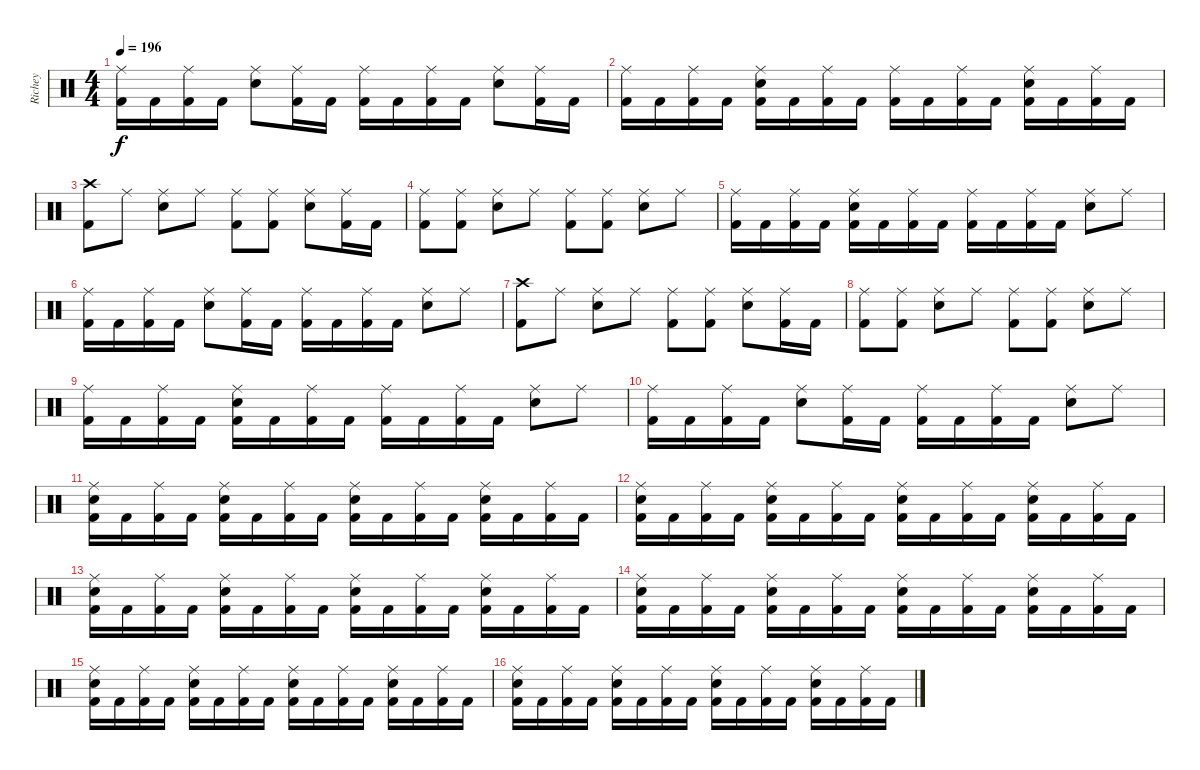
\track ("Richey" "Richey") {instrument percussion}
\staff {score}
\articulation defaults
\ts (4 4)
\tempo 196
\clef neutral
\ks c
("Ride (middle)" "Kick (hit) 2").16{dy f} "Kick (hit) 2".16 ("Ride (middle)" "Kick (hit) 2").16 "Kick (hit) 2".16 ("Ride (middle)" "Snare (hit) 2").8 ("Ride (middle)" "Kick (hit) 2").16 "Kick (hit) 2".16 ("Ride (middle)" "Kick (hit) 2").16 "Kick (hit) 2".16 ("Ride (middle)" "Kick (hit) 2").16 "Kick (hit) 2".16 ("Ride (middle)" "Snare (hit) 2").8 ("Ride (middle)" "Kick (hit) 2").16 "Kick (hit) 2".16 |
("Ride (middle)" "Kick (hit) 2").16 "Kick (hit) 2".16 ("Ride (middle)" "Kick (hit) 2").16 "Kick (hit) 2".16 ("Ride (middle)" "Snare (hit) 2" "Kick (hit) 2").16 "Kick (hit) 2".16 ("Ride (middle)" "Kick (hit) 2").16 "Kick (hit) 2".16 ("Ride (middle)" "Kick (hit) 2").16 "Kick (hit) 2".16 ("Ride (middle)" "Kick (hit) 2").16 "Kick (hit) 2".16 ("Ride (middle)" "Snare (hit) 2" "Kick (hit) 2").16 "Kick (hit) 2".16 ("Ride (middle)" "Kick (hit) 2").16 "Kick (hit) 2".16 |
("Crash high (hit)" "Kick (hit) 2").8 "Ride (middle)".8 ("Ride (middle)" "Snare (hit) 2").8 "Ride (middle)".8 ("Ride (middle)" "Kick (hit) 2").8 ("Ride (middle)" "Kick (hit) 2").8 ("Ride (middle)" "Snare (hit) 2").8 ("Ride (middle)" "Kick (hit) 2").16 "Kick (hit) 2".16 |
("Ride (middle)" "Kick (hit) 2").8 ("Ride (middle)" "Kick (hit) 2").8 ("Ride (middle)" "Snare (hit) 2").8 "Ride (middle)".8 ("Ride (middle)" "Kick (hit) 2").8 ("Ride (middle)" "Kick (hit) 2").8 ("Ride (middle)" "Snare (hit) 2").8 "Ride (middle)".8 |
("Ride (middle)" "Kick (hit) 2").16 "Kick (hit) 2".16 ("Ride (middle)" "Kick (hit) 2").16 "Kick (hit) 2".16 ("Ride (middle)" "Snare (hit) 2" "Kick (hit) 2").16 "Kick (hit) 2".16 ("Ride (middle)" "Kick (hit) 2").16 "Kick (hit) 2".16 ("Ride (middle)" "Kick (hit) 2").16 "Kick (hit) 2".16 ("Ride (middle)" "Kick (hit) 2").16 "Kick (hit) 2".16 ("Ride (middle)" "Snare (hit) 2").8 "Ride (middle)".8 |
("Ride (middle)" "Kick (hit) 2").16 "Kick (hit) 2".16 ("Ride (middle)" "Kick (hit) 2").16 "Kick (hit) 2".16 ("Ride (middle)" "Snare (hit) 2").8 ("Ride (middle)" "Kick (hit) 2").16 "Kick (hit) 2".16 ("Ride (middle)" "Kick (hit) 2").16 "Kick (hit) 2".16 ("Ride (middle)" "Kick (hit) 2").16 "Kick (hit) 2".16 ("Ride (middle)" "Snare (hit) 2").8 "Ride (middle)".8 |
("Crash high (hit)" "Kick (hit) 2").8 "Ride (middle)".8 ("Ride (middle)" "Snare (hit) 2").8 "Ride (middle)".8 ("Ride (middle)" "Kick (hit) 2").8 ("Ride (middle)" "Kick (hit) 2").8 ("Ride (middle)" "Snare (hit) 2").8 ("Ride (middle)" "Kick (hit) 2").16 "Kick (hit) 2".16 |
("Ride (middle)" "Kick (hit) 2").8 ("Ride (middle)" "Kick (hit) 2").8 ("Ride (middle)" "Snare (hit) 2").8 "Ride (middle)".8 ("Ride (middle)" "Kick (hit) 2").8 ("Ride (middle)" "Kick (hit) 2").8 ("Ride (middle)" "Snare (hit) 2").8 "Ride (middle)".8 |
("Ride (middle)" "Kick (hit) 2").16 "Kick (hit) 2".16 ("Ride (middle)" "Kick (hit) 2").16 "Kick (hit) 2".16 ("Ride (middle)" "Snare (hit) 2" "Kick (hit) 2").16 "Kick (hit) 2".16 ("Ride (middle)" "Kick (hit) 2").16 "Kick (hit) 2".16 ("Ride (middle)" "Kick (hit) 2").16 "Kick (hit) 2".16 ("Ride (middle)" "Kick (hit) 2").16 "Kick (hit) 2".16 ("Ride (middle)" "Snare (hit) 2").8 "Ride (middle)".8 |
("Ride (middle)" "Kick (hit) 2").16 "Kick (hit) 2".16 ("Ride (middle)" "Kick (hit) 2").16 "Kick (hit) 2".16 ("Ride (middle)" "Snare (hit) 2").8 ("Ride (middle)" "Kick (hit) 2").16 "Kick (hit) 2".16 ("Ride (middle)" "Kick (hit) 2").16 "Kick (hit) 2".16 ("Ride (middle)" "Kick (hit) 2").16 "Kick (hit) 2".16 ("Ride (middle)" "Snare (hit) 2").8 "Ride (middle)".8 |
("Ride (middle)" "Snare (hit) 2" "Kick (hit) 2").16 "Kick (hit) 2".16 ("Ride (middle)" "Kick (hit) 2").16 "Kick (hit) 2".16 ("Ride (middle)" "Snare (hit) 2" "Kick (hit) 2").16 "Kick (hit) 2".16 ("Ride (middle)" "Kick (hit) 2").16 "Kick (hit) 2".16 ("Ride (middle)" "Snare (hit) 2" "Kick (hit) 2").16 "Kick (hit) 2".16 ("Ride (middle)" "Kick (hit) 2").16 "Kick (hit) 2".16 ("Ride (middle)" "Snare (hit) 2" "Kick (hit) 2").16 "Kick (hit) 2".16 ("Ride (middle)" "Kick (hit) 2").16 "Kick (hit) 2".16 |
("Ride (middle)" "Snare (hit) 2" "Kick (hit) 2").16 "Kick (hit) 2".16 ("Ride (middle)" "Kick (hit) 2").16 "Kick (hit) 2".16 ("Ride (middle)" "Snare (hit) 2" "Kick (hit) 2").16 "Kick (hit) 2".16 ("Ride (middle)" "Kick (hit) 2").16 "Kick (hit) 2".16 ("Ride (middle)" "Snare (hit) 2" "Kick (hit) 2").16 "Kick (hit) 2".16 ("Ride (middle)" "Kick (hit) 2").16 "Kick (hit) 2".16 ("Ride (middle)" "Snare (hit) 2" "Kick (hit) 2").16 "Kick (hit) 2".16 ("Ride (middle)" "Kick (hit) 2").16 "Kick (hit) 2".16 |
("Ride (middle)" "Snare (hit) 2" "Kick (hit) 2").16 "Kick (hit) 2".16 ("Ride (middle)" "Kick (hit) 2").16 "Kick (hit) 2".16 ("Ride (middle)" "Snare (hit) 2" "Kick (hit) 2").16 "Kick (hit) 2".16 ("Ride (middle)" "Kick (hit) 2").16 "Kick (hit) 2".16 ("Ride (middle)" "Snare (hit) 2" "Kick (hit) 2").16 "Kick (hit) 2".16 ("Ride (middle)" "Kick (hit) 2").16 "Kick (hit) 2".16 ("Ride (middle)" "Snare (hit) 2" "Kick (hit) 2").16 "Kick (hit) 2".16 ("Ride (middle)" "Kick (hit) 2").16 "Kick (hit) 2".16 |
("Ride (middle)" "Snare (hit) 2" "Kick (hit) 2").16 "Kick (hit) 2".16 ("Ride (middle)" "Kick (hit) 2").16 "Kick (hit) 2".16 ("Ride (middle)" "Snare (hit) 2" "Kick (hit) 2").16 "Kick (hit) 2".16 ("Ride (middle)" "Kick (hit) 2").16 "Kick (hit) 2".16 ("Ride (middle)" "Snare (hit) 2" "Kick (hit) 2").16 "Kick (hit) 2".16 ("Ride (middle)" "Kick (hit) 2").16 "Kick (hit) 2".16 ("Ride (middle)" "Snare (hit) 2" "Kick (hit) 2").16 "Kick (hit) 2".16 ("Ride (middle)" "Kick (hit) 2").16 "Kick (hit) 2".16 |
("Ride (middle)" "Snare (hit) 2" "Kick (hit) 2").16 "Kick (hit) 2".16 ("Ride (middle)" "Kick (hit) 2").16 "Kick (hit) 2".16 ("Ride (middle)" "Snare (hit) 2" "Kick (hit) 2").16 "Kick (hit) 2".16 ("Ride (middle)" "Kick (hit) 2").16 "Kick (hit) 2".16 ("Ride (middle)" "Snare (hit) 2" "Kick (hit) 2").16 "Kick (hit) 2".16 ("Ride (middle)" "Kick (hit) 2").16 "Kick (hit) 2".16 ("Ride (middle)" "Snare (hit) 2" "Kick (hit) 2").16 "Kick (hit) 2".16 ("Ride (middle)" "Kick (hit) 2").16 "Kick (hit) 2".16 |
("Ride (middle)" "Snare (hit) 2" "Kick (hit) 2").16 "Kick (hit) 2".16 ("Ride (middle)" "Kick (hit) 2").16 "Kick (hit) 2".16 ("Ride (middle)" "Snare (hit) 2" "Kick (hit) 2").16 "Kick (hit) 2".16 ("Ride (middle)" "Kick (hit) 2").16 "Kick (hit) 2".16 ("Ride (middle)" "Snare (hit) 2" "Kick (hit) 2").16 "Kick (hit) 2".16 ("Ride (middle)" "Kick (hit) 2").16 "Kick (hit) 2".16 ("Ride (middle)" "Snare (hit) 2" "Kick (hit) 2").16 "Kick (hit) 2".16 ("Ride (middle)" "Kick (hit) 2").16 "Kick (hit) 2".16
